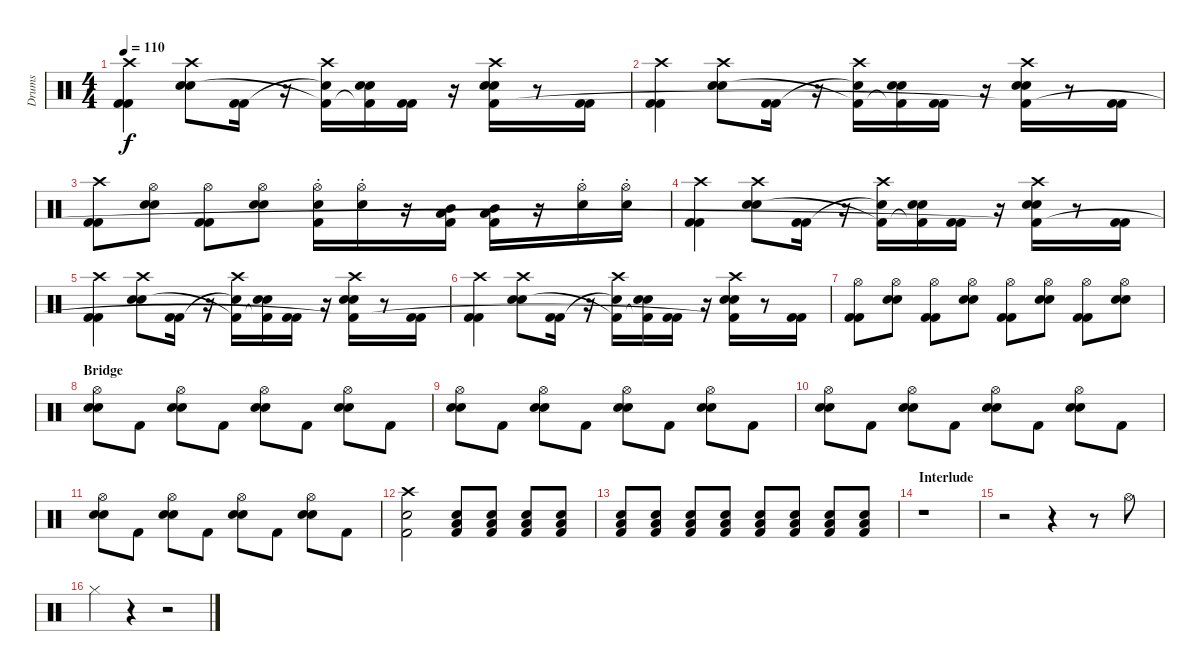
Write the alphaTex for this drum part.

\track ("Drums" "Drums") {instrument percussion}
\staff {score}
\articulation defaults
\ts (4 4)
\tempo 110
\clef neutral
\ks c
("Crash high (hit)" "Kick (hit) 2" "Kick (hit) 2").4{dy f} ("Crash high (hit)" "Snare (hit) 2" "Snare (hit) 2").8 ("Kick (hit) 2" "Kick (hit) 2").16 r.16 ("Crash high (hit)" "Snare (hit) 2"{t} "Kick (hit) 2"{t}).16 ("Snare (hit) 2" "Snare (hit) 2" "Kick (hit) 2"{t}).16 ("Kick (hit) 2" "Kick (hit) 2").16 r.16 ("Crash high (hit)" "Snare (hit) 2" "Snare (hit) 2" "Kick (hit) 2"{t}).16 r.8 ("Kick (hit) 2" "Kick (hit) 2").16 |
("Crash high (hit)" "Kick (hit) 2" "Kick (hit) 2").4 ("Crash high (hit)" "Snare (hit) 2" "Snare (hit) 2").8 ("Kick (hit) 2" "Kick (hit) 2").16 r.16 ("Crash high (hit)" "Snare (hit) 2"{t} "Kick (hit) 2"{t}).16 ("Snare (hit) 2" "Snare (hit) 2" "Kick (hit) 2"{t}).16 ("Kick (hit) 2" "Kick (hit) 2").16 r.16 ("Crash high (hit)" "Snare (hit) 2" "Snare (hit) 2" "Kick (hit) 2"{t}).16 r.8 ("Kick (hit) 2" "Kick (hit) 2").16 |
("Crash high (hit)" "Kick (hit) 2" "Kick (hit) 2").8 ("Hi-Hat (open)" "Snare (hit) 2" "Snare (hit) 2").8 ("Hi-Hat (open)" "Kick (hit) 2" "Kick (hit) 2").8 ("Hi-Hat (open)" "Snare (hit) 2" "Snare (hit) 2").8 ("Hi-Hat (open)"{st} "Snare (hit) 2" "Kick (hit) 2").16 ("Hi-Hat (open)"{st} "Snare (hit) 2").16 r.16 ("Mid Tom (hit)" "Low Tom (hit)" "Kick (hit) 2").16 ("Mid Tom (hit)" "Low Tom (hit)" "Kick (hit) 2").16 r.16 ("Hi-Hat (open)"{st} "Snare (hit) 2").16 ("Hi-Hat (open)"{st} "Snare (hit) 2").16 |
("Crash high (hit)" "Kick (hit) 2" "Kick (hit) 2").4 ("Crash high (hit)" "Snare (hit) 2" "Snare (hit) 2").8 ("Kick (hit) 2" "Kick (hit) 2").16 r.16 ("Crash high (hit)" "Snare (hit) 2"{t} "Kick (hit) 2"{t}).16 ("Snare (hit) 2" "Snare (hit) 2" "Kick (hit) 2"{t}).16 ("Kick (hit) 2" "Kick (hit) 2").16 r.16 ("Crash high (hit)" "Snare (hit) 2" "Snare (hit) 2" "Kick (hit) 2"{t}).16 r.8 ("Kick (hit) 2" "Kick (hit) 2").16 |
("Crash high (hit)" "Kick (hit) 2" "Kick (hit) 2").4 ("Crash high (hit)" "Snare (hit) 2" "Snare (hit) 2").8 ("Kick (hit) 2" "Kick (hit) 2").16 r.16 ("Crash high (hit)" "Snare (hit) 2"{t} "Kick (hit) 2"{t}).16 ("Snare (hit) 2" "Snare (hit) 2" "Kick (hit) 2"{t}).16 ("Kick (hit) 2" "Kick (hit) 2").16 r.16 ("Crash high (hit)" "Snare (hit) 2" "Snare (hit) 2" "Kick (hit) 2"{t}).16 r.8 ("Kick (hit) 2" "Kick (hit) 2").16 |
("Crash high (hit)" "Kick (hit) 2" "Kick (hit) 2").4 ("Crash high (hit)" "Snare (hit) 2" "Snare (hit) 2").8 ("Kick (hit) 2" "Kick (hit) 2").16 r.16 ("Crash high (hit)" "Snare (hit) 2"{t} "Kick (hit) 2"{t}).16 ("Snare (hit) 2" "Snare (hit) 2" "Kick (hit) 2"{t}).16 ("Kick (hit) 2" "Kick (hit) 2").16 r.16 ("Crash high (hit)" "Snare (hit) 2" "Snare (hit) 2" "Kick (hit) 2"{t}).16 r.8 ("Kick (hit) 2" "Kick (hit) 2").16 |
("Hi-Hat (open)" "Kick (hit) 2" "Kick (hit) 2").8 ("Hi-Hat (open)" "Snare (hit) 2" "Snare (hit) 2").8 ("Hi-Hat (open)" "Kick (hit) 2" "Kick (hit) 2").8 ("Hi-Hat (open)" "Snare (hit) 2" "Snare (hit) 2").8 ("Hi-Hat (open)" "Kick (hit) 2" "Kick (hit) 2").8 ("Hi-Hat (open)" "Snare (hit) 2" "Snare (hit) 2").8 ("Hi-Hat (open)" "Kick (hit) 2" "Kick (hit) 2").8 ("Hi-Hat (open)" "Snare (hit) 2" "Snare (hit) 2").8 |
\section ("" "Bridge")
("Hi-Hat (open)" "Snare (hit) 2" "Snare (hit) 2").8 "Kick (hit) 2".8 ("Hi-Hat (open)" "Snare (hit) 2" "Snare (hit) 2").8 "Kick (hit) 2".8 ("Hi-Hat (open)" "Snare (hit) 2" "Snare (hit) 2").8 "Kick (hit) 2".8 ("Hi-Hat (open)" "Snare (hit) 2" "Snare (hit) 2").8 "Kick (hit) 2".8 |
("Hi-Hat (open)" "Snare (hit) 2" "Snare (hit) 2").8 "Kick (hit) 2".8 ("Hi-Hat (open)" "Snare (hit) 2" "Snare (hit) 2").8 "Kick (hit) 2".8 ("Hi-Hat (open)" "Snare (hit) 2" "Snare (hit) 2").8 "Kick (hit) 2".8 ("Hi-Hat (open)" "Snare (hit) 2" "Snare (hit) 2").8 "Kick (hit) 2".8 |
("Hi-Hat (open)" "Snare (hit) 2" "Snare (hit) 2").8 "Kick (hit) 2".8 ("Hi-Hat (open)" "Snare (hit) 2" "Snare (hit) 2").8 "Kick (hit) 2".8 ("Hi-Hat (open)" "Snare (hit) 2" "Snare (hit) 2").8 "Kick (hit) 2".8 ("Hi-Hat (open)" "Snare (hit) 2" "Snare (hit) 2").8 "Kick (hit) 2".8 |
("Hi-Hat (open)" "Snare (hit) 2" "Snare (hit) 2").8 "Kick (hit) 2".8 ("Hi-Hat (open)" "Snare (hit) 2" "Snare (hit) 2").8 "Kick (hit) 2".8 ("Hi-Hat (open)" "Snare (hit) 2" "Snare (hit) 2").8 "Kick (hit) 2".8 ("Hi-Hat (open)" "Snare (hit) 2" "Snare (hit) 2").8 "Kick (hit) 2".8 |
("Crash high (hit)" "Snare (hit) 2" "Kick (hit) 2").2{volume 0} ("Snare (hit) 2" "Low Floor Tom (hit)" "Kick (hit) 2").8{volume 13} ("Snare (hit) 2" "Low Floor Tom (hit)" "Kick (hit) 2").8 ("Snare (hit) 2" "Low Floor Tom (hit)" "Kick (hit) 2").8 ("Snare (hit) 2" "Low Floor Tom (hit)" "Kick (hit) 2").8 |
("Snare (hit) 2" "Low Floor Tom (hit)" "Kick (hit) 2").8 ("Snare (hit) 2" "Low Floor Tom (hit)" "Kick (hit) 2").8 ("Snare (hit) 2" "Low Floor Tom (hit)" "Kick (hit) 2").8 ("Snare (hit) 2" "Low Floor Tom (hit)" "Kick (hit) 2").8 ("Snare (hit) 2" "Low Floor Tom (hit)" "Kick (hit) 2").8 ("Snare (hit) 2" "Low Floor Tom (hit)" "Kick (hit) 2").8 ("Snare (hit) 2" "Low Floor Tom (hit)" "Kick (hit) 2").8 ("Snare (hit) 2" "Low Floor Tom (hit)" "Kick (hit) 2").8 |
\section ("" "Interlude")
r.1 |
r.2 r.4 r.8 "Hi-Hat (open)".8 |
"Hi-Hat (closed)".4 r.4 r.2
